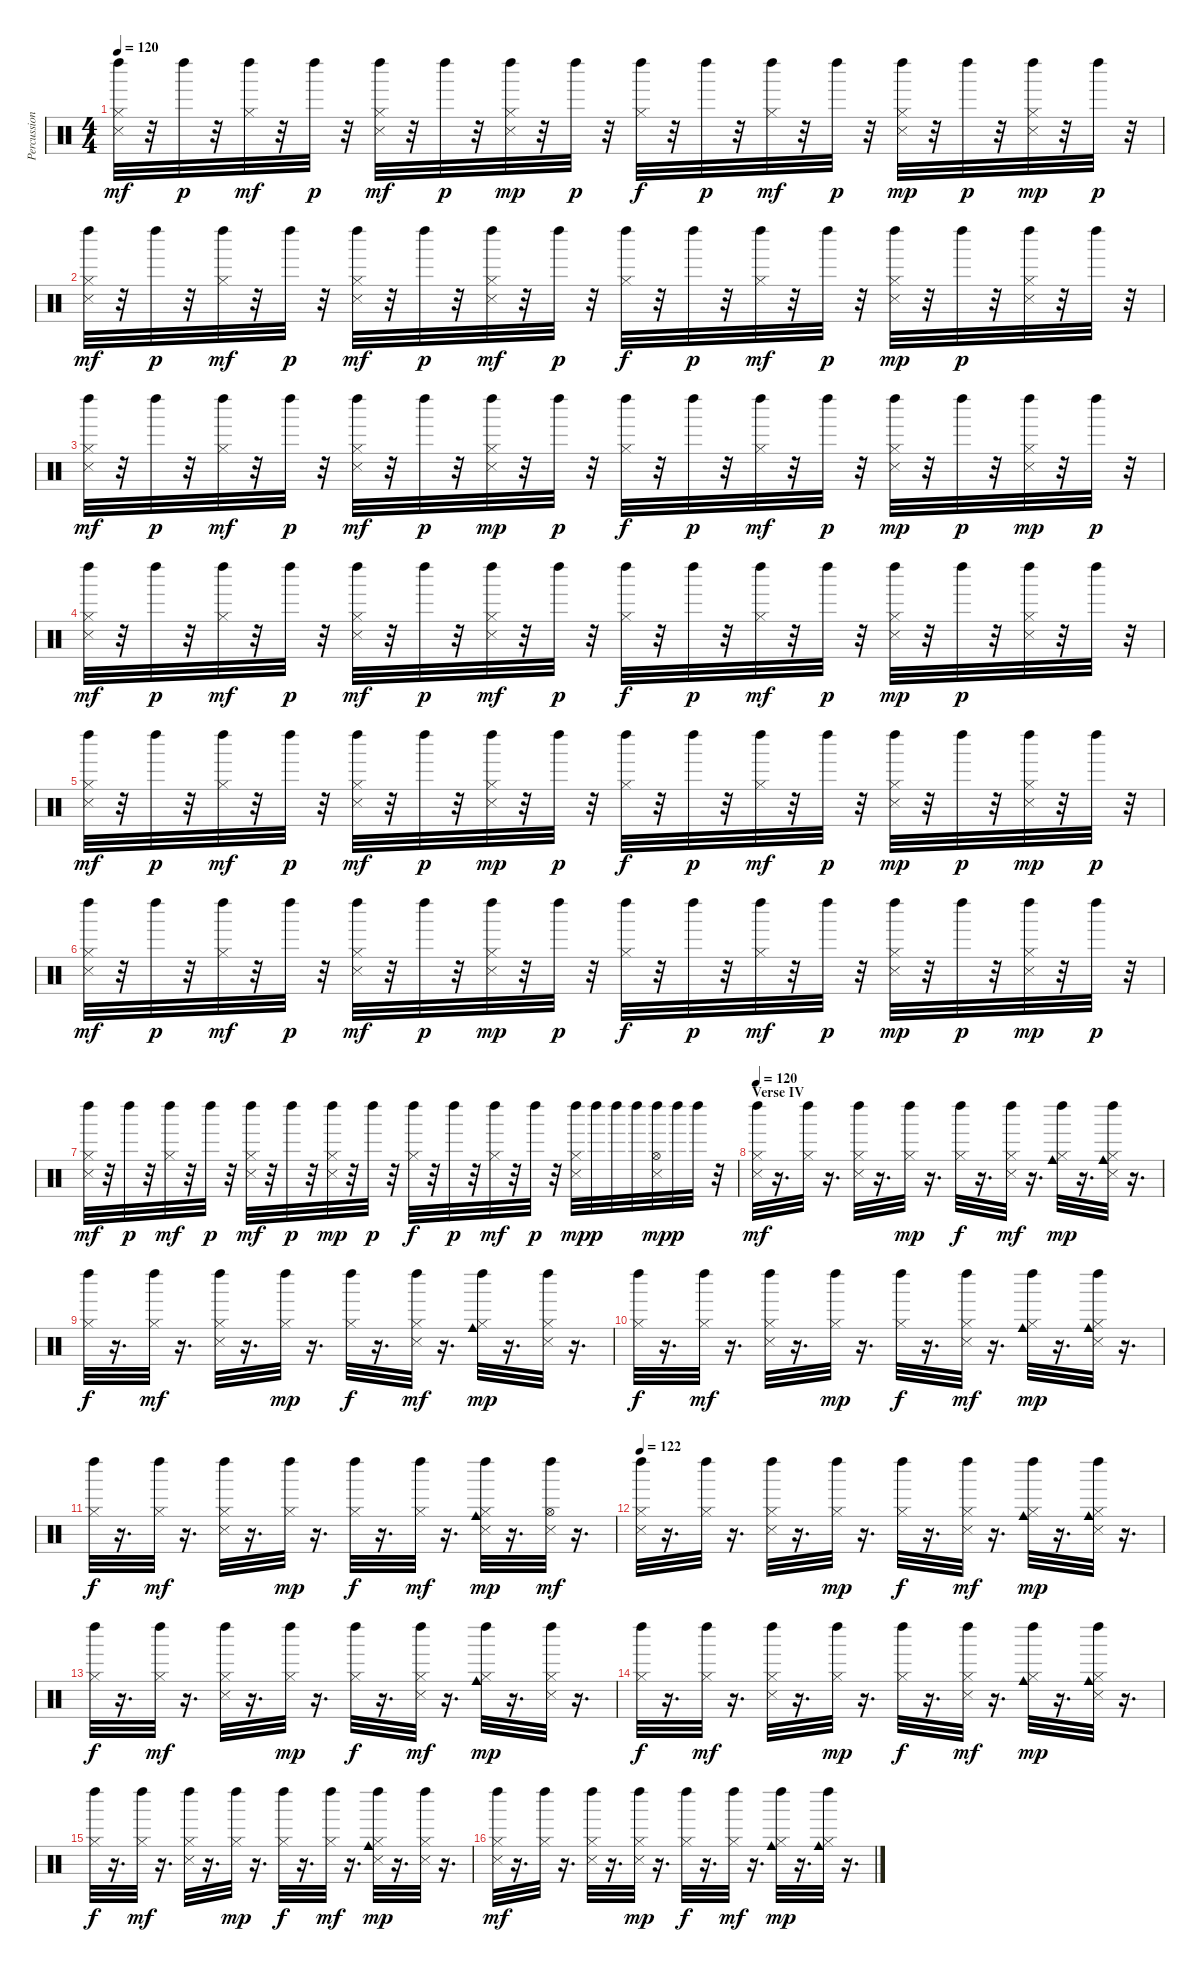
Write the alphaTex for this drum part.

\track ("Percussion" "Percussion") {instrument percussion}
\staff {score}
\articulation defaults
\ts (4 4)
\tempo 120
\clef neutral
\ks c
("Hi-Hat (closed)" "Metronome (hit)" "Left Maraca (hit)").32{dy mf} r.32 "Left Maraca (hit)".32{dy p} r.32 ("Hi-Hat (closed)" "Left Maraca (hit)").32{dy mf} r.32 "Left Maraca (hit)".32{dy p} r.32 ("Hi-Hat (closed)" "Snare (side stick) 3" "Left Maraca (hit)").32{dy mf} r.32 "Left Maraca (hit)".32{dy p} r.32 ("Hi-Hat (closed)" "Metronome (hit)" "Left Maraca (hit)").32{dy mp} r.32 "Left Maraca (hit)".32{dy p} r.32 ("Hi-Hat (closed)" "Left Maraca (hit)").32{dy f} r.32 "Left Maraca (hit)".32{dy p} r.32 ("Hi-Hat (closed)" "Left Maraca (hit)").32{dy mf} r.32 "Left Maraca (hit)".32{dy p} r.32 ("Hi-Hat (closed)" "Snare (side stick) 3" "Left Maraca (hit)").32{dy mp} r.32 "Left Maraca (hit)".32{dy p} r.32 ("Hi-Hat (closed)" "Metronome (hit)" "Left Maraca (hit)").32{dy mp} r.32 "Left Maraca (hit)".32{dy p} r.32 |
("Hi-Hat (closed)" "Left Maraca (hit)" "Metronome (hit)").32{dy mf} r.32 "Left Maraca (hit)".32{dy p} r.32 ("Hi-Hat (closed)" "Left Maraca (hit)").32{dy mf} r.32 "Left Maraca (hit)".32{dy p} r.32 ("Hi-Hat (closed)" "Snare (side stick) 3" "Left Maraca (hit)").32{dy mf} r.32 "Left Maraca (hit)".32{dy p} r.32 ("Hi-Hat (closed)" "Left Maraca (hit)" "Metronome (hit)").32{dy mf} r.32 "Left Maraca (hit)".32{dy p} r.32 ("Hi-Hat (closed)" "Left Maraca (hit)").32{dy f} r.32 "Left Maraca (hit)".32{dy p} r.32 ("Hi-Hat (closed)" "Left Maraca (hit)").32{dy mf} r.32 "Left Maraca (hit)".32{dy p} r.32 ("Hi-Hat (closed)" "Left Maraca (hit)" "Snare (side stick) 3").32{dy mp} r.32 "Left Maraca (hit)".32{dy p} r.32 ("Hi-Hat (closed)" "Left Maraca (hit)" "Metronome (hit)").32 r.32 "Left Maraca (hit)".32 r.32 |
("Hi-Hat (closed)" "Metronome (hit)" "Left Maraca (hit)").32{dy mf} r.32 "Left Maraca (hit)".32{dy p} r.32 ("Hi-Hat (closed)" "Left Maraca (hit)").32{dy mf} r.32 "Left Maraca (hit)".32{dy p} r.32 ("Snare (side stick) 3" "Hi-Hat (closed)" "Left Maraca (hit)").32{dy mf} r.32 "Left Maraca (hit)".32{dy p} r.32 ("Hi-Hat (closed)" "Metronome (hit)" "Left Maraca (hit)").32{dy mp} r.32 "Left Maraca (hit)".32{dy p} r.32 ("Hi-Hat (closed)" "Left Maraca (hit)").32{dy f} r.32 "Left Maraca (hit)".32{dy p} r.32 ("Hi-Hat (closed)" "Left Maraca (hit)").32{dy mf} r.32 "Left Maraca (hit)".32{dy p} r.32 ("Hi-Hat (closed)" "Snare (side stick) 3" "Left Maraca (hit)").32{dy mp} r.32 "Left Maraca (hit)".32{dy p} r.32 ("Hi-Hat (closed)" "Metronome (hit)" "Left Maraca (hit)").32{dy mp} r.32 "Left Maraca (hit)".32{dy p} r.32 |
("Left Maraca (hit)" "Hi-Hat (closed)" "Metronome (hit)").32{dy mf} r.32 "Left Maraca (hit)".32{dy p} r.32 ("Left Maraca (hit)" "Hi-Hat (closed)").32{dy mf} r.32 "Left Maraca (hit)".32{dy p} r.32 ("Left Maraca (hit)" "Hi-Hat (closed)" "Snare (side stick) 3").32{dy mf} r.32 "Left Maraca (hit)".32{dy p} r.32 ("Left Maraca (hit)" "Hi-Hat (closed)" "Metronome (hit)").32{dy mf} r.32 "Left Maraca (hit)".32{dy p} r.32 ("Left Maraca (hit)" "Hi-Hat (closed)").32{dy f} r.32 "Left Maraca (hit)".32{dy p} r.32 ("Left Maraca (hit)" "Hi-Hat (closed)").32{dy mf} r.32 "Left Maraca (hit)".32{dy p} r.32 ("Left Maraca (hit)" "Hi-Hat (closed)" "Snare (side stick) 3").32{dy mp} r.32 "Left Maraca (hit)".32{dy p} r.32 ("Left Maraca (hit)" "Hi-Hat (closed)" "Metronome (hit)").32 r.32 "Left Maraca (hit)".32 r.32 |
("Hi-Hat (closed)" "Metronome (hit)" "Left Maraca (hit)").32{dy mf} r.32 "Left Maraca (hit)".32{dy p} r.32 ("Hi-Hat (closed)" "Left Maraca (hit)").32{dy mf} r.32 "Left Maraca (hit)".32{dy p} r.32 ("Snare (side stick) 3" "Hi-Hat (closed)" "Left Maraca (hit)").32{dy mf} r.32 "Left Maraca (hit)".32{dy p} r.32 ("Hi-Hat (closed)" "Metronome (hit)" "Left Maraca (hit)").32{dy mp} r.32 "Left Maraca (hit)".32{dy p} r.32 ("Hi-Hat (closed)" "Left Maraca (hit)").32{dy f} r.32 "Left Maraca (hit)".32{dy p} r.32 ("Hi-Hat (closed)" "Left Maraca (hit)").32{dy mf} r.32 "Left Maraca (hit)".32{dy p} r.32 ("Hi-Hat (closed)" "Snare (side stick) 3" "Left Maraca (hit)").32{dy mp} r.32 "Left Maraca (hit)".32{dy p} r.32 ("Hi-Hat (closed)" "Metronome (hit)" "Left Maraca (hit)").32{dy mp} r.32 "Left Maraca (hit)".32{dy p} r.32 |
("Metronome (hit)" "Hi-Hat (closed)" "Left Maraca (hit)").32{dy mf} r.32 "Left Maraca (hit)".32{dy p} r.32 ("Hi-Hat (closed)" "Left Maraca (hit)").32{dy mf} r.32 "Left Maraca (hit)".32{dy p} r.32 ("Hi-Hat (closed)" "Snare (side stick) 3" "Left Maraca (hit)").32{dy mf} r.32 "Left Maraca (hit)".32{dy p} r.32 ("Metronome (hit)" "Hi-Hat (closed)" "Left Maraca (hit)").32{dy mp} r.32 "Left Maraca (hit)".32{dy p} r.32 ("Hi-Hat (closed)" "Left Maraca (hit)").32{dy f} r.32 "Left Maraca (hit)".32{dy p} r.32 ("Hi-Hat (closed)" "Left Maraca (hit)").32{dy mf} r.32 "Left Maraca (hit)".32{dy p} r.32 ("Snare (side stick) 3" "Hi-Hat (closed)" "Left Maraca (hit)").32{dy mp} r.32 "Left Maraca (hit)".32{dy p} r.32 ("Metronome (hit)" "Hi-Hat (closed)" "Left Maraca (hit)").32{dy mp} r.32 "Left Maraca (hit)".32{dy p} r.32 |
("Metronome (hit)" "Hi-Hat (closed)" "Left Maraca (hit)").32{dy mf} r.32 "Left Maraca (hit)".32{dy p} r.32 ("Hi-Hat (closed)" "Left Maraca (hit)").32{dy mf} r.32 "Left Maraca (hit)".32{dy p} r.32 ("Snare (side stick) 3" "Hi-Hat (closed)" "Left Maraca (hit)").32{dy mf} r.32 "Left Maraca (hit)".32{dy p} r.32 ("Metronome (hit)" "Hi-Hat (closed)" "Left Maraca (hit)").32{dy mp} r.32 "Left Maraca (hit)".32{dy p} r.32 ("Hi-Hat (closed)" "Left Maraca (hit)").32{dy f} r.32 "Left Maraca (hit)".32{dy p} r.32 ("Hi-Hat (closed)" "Left Maraca (hit)").32{dy mf} r.32 "Left Maraca (hit)".32{dy p} r.32 ("Snare (side stick) 3" "Hi-Hat (closed)" "Left Maraca (hit)").32{dy mp} "Left Maraca (hit)".32{dy p} "Left Maraca (hit)".32 "Left Maraca (hit)".32 ("Metronome (hit)" "Hi-Hat (open)" "Left Maraca (hit)").32{dy mp} "Left Maraca (hit)".32{dy p} "Left Maraca (hit)".32 r.32 |
\section ("" "Verse IV")
\tempo 120
("Left Maraca (hit)" "Metronome (hit)" "Hi-Hat (closed)").32{dy mf} r.16{d} ("Hi-Hat (closed)" "Left Maraca (hit)").32 r.16{d} ("Snare (side stick) 3" "Hi-Hat (closed)" "Left Maraca (hit)").32 r.16{d} ("Left Maraca (hit)" "Hi-Hat (closed)").32{dy mp} r.16{d} ("Left Maraca (hit)" "Hi-Hat (closed)").32{dy f} r.16{d} ("Metronome (hit)" "Left Maraca (hit)" "Hi-Hat (closed)").32{dy mf} r.16{d} ("Cowbell medium (hit)" "Hi-Hat (closed)" "Left Maraca (hit)").32{dy mp} r.16{d} ("Cowbell medium (hit)" "Hi-Hat (closed)" "Metronome (hit)" "Left Maraca (hit)").32 r.16{d} |
("Hi-Hat (closed)" "Left Maraca (hit)").32{dy f} r.16{d} ("Hi-Hat (closed)" "Left Maraca (hit)").32{dy mf} r.16{d} ("Snare (side stick) 3" "Hi-Hat (closed)" "Left Maraca (hit)").32 r.16{d} ("Hi-Hat (closed)" "Left Maraca (hit)").32{dy mp} r.16{d} ("Hi-Hat (closed)" "Left Maraca (hit)").32{dy f} r.16{d} ("Metronome (hit)" "Hi-Hat (closed)" "Left Maraca (hit)").32{dy mf} r.16{d} ("Cowbell medium (hit)" "Hi-Hat (closed)" "Left Maraca (hit)").32{dy mp} r.16{d} ("Metronome (hit)" "Hi-Hat (closed)" "Left Maraca (hit)").32 r.16{d} |
("Hi-Hat (closed)" "Left Maraca (hit)").32{dy f} r.16{d} ("Hi-Hat (closed)" "Left Maraca (hit)").32{dy mf} r.16{d} ("Hi-Hat (closed)" "Left Maraca (hit)" "Snare (side stick) 3").32 r.16{d} ("Hi-Hat (closed)" "Left Maraca (hit)").32{dy mp} r.16{d} ("Hi-Hat (closed)" "Left Maraca (hit)").32{dy f} r.16{d} ("Metronome (hit)" "Hi-Hat (closed)" "Left Maraca (hit)").32{dy mf} r.16{d} ("Hi-Hat (closed)" "Left Maraca (hit)" "Cowbell medium (hit)").32{dy mp} r.16{d} ("Metronome (hit)" "Hi-Hat (closed)" "Left Maraca (hit)" "Cowbell medium (hit)").32 r.16{d} |
("Left Maraca (hit)" "Hi-Hat (closed)").32{dy f} r.16{d} ("Left Maraca (hit)" "Hi-Hat (closed)").32{dy mf} r.16{d} ("Snare (side stick) 3" "Left Maraca (hit)" "Hi-Hat (closed)").32 r.16{d} ("Left Maraca (hit)" "Hi-Hat (closed)").32{dy mp} r.16{d} ("Left Maraca (hit)" "Hi-Hat (closed)").32{dy f} r.16{d} ("Left Maraca (hit)" "Hi-Hat (closed)").32{dy mf} r.16{d} ("Metronome (hit)" "Cowbell medium (hit)" "Left Maraca (hit)" "Hi-Hat (closed)").32{dy mp} r.16{d} ("Metronome (hit)" "Left Maraca (hit)" "Hi-Hat (open)").32{dy mf} r.16{d} |
\tempo 122
("Metronome (hit)" "Hi-Hat (closed)" "Left Maraca (hit)").32 r.16{d} ("Hi-Hat (closed)" "Left Maraca (hit)").32 r.16{d} ("Hi-Hat (closed)" "Left Maraca (hit)" "Snare (side stick) 3").32 r.16{d} ("Hi-Hat (closed)" "Left Maraca (hit)").32{dy mp} r.16{d} ("Hi-Hat (closed)" "Left Maraca (hit)").32{dy f} r.16{d} ("Metronome (hit)" "Hi-Hat (closed)" "Left Maraca (hit)").32{dy mf} r.16{d} ("Hi-Hat (closed)" "Left Maraca (hit)" "Cowbell medium (hit)").32{dy mp} r.16{d} ("Metronome (hit)" "Hi-Hat (closed)" "Cowbell medium (hit)" "Left Maraca (hit)").32 r.16{d} |
("Hi-Hat (closed)" "Left Maraca (hit)").32{dy f} r.16{d} ("Hi-Hat (closed)" "Left Maraca (hit)").32{dy mf} r.16{d} ("Hi-Hat (closed)" "Left Maraca (hit)" "Snare (side stick) 3").32 r.16{d} ("Hi-Hat (closed)" "Left Maraca (hit)").32{dy mp} r.16{d} ("Hi-Hat (closed)" "Left Maraca (hit)").32{dy f} r.16{d} ("Metronome (hit)" "Hi-Hat (closed)" "Left Maraca (hit)").32{dy mf} r.16{d} ("Hi-Hat (closed)" "Left Maraca (hit)" "Cowbell medium (hit)").32{dy mp} r.16{d} ("Metronome (hit)" "Hi-Hat (closed)" "Left Maraca (hit)").32 r.16{d} |
("Hi-Hat (closed)" "Left Maraca (hit)").32{dy f} r.16{d} ("Hi-Hat (closed)" "Left Maraca (hit)").32{dy mf} r.16{d} ("Hi-Hat (closed)" "Left Maraca (hit)" "Snare (side stick) 3").32 r.16{d} ("Hi-Hat (closed)" "Left Maraca (hit)").32{dy mp} r.16{d} ("Hi-Hat (closed)" "Left Maraca (hit)").32{dy f} r.16{d} ("Metronome (hit)" "Hi-Hat (closed)" "Left Maraca (hit)").32{dy mf} r.16{d} ("Hi-Hat (closed)" "Left Maraca (hit)" "Cowbell medium (hit)").32{dy mp} r.16{d} ("Metronome (hit)" "Hi-Hat (closed)" "Left Maraca (hit)" "Cowbell medium (hit)").32 r.16{d} |
("Left Maraca (hit)" "Hi-Hat (closed)").32{dy f} r.16{d} ("Left Maraca (hit)" "Hi-Hat (closed)").32{dy mf} r.16{d} ("Snare (side stick) 3" "Left Maraca (hit)" "Hi-Hat (closed)").32 r.16{d} ("Left Maraca (hit)" "Hi-Hat (closed)").32{dy mp} r.16{d} ("Left Maraca (hit)" "Hi-Hat (closed)").32{dy f} r.16{d} ("Left Maraca (hit)" "Hi-Hat (closed)").32{dy mf} r.16{d} ("Metronome (hit)" "Cowbell medium (hit)" "Left Maraca (hit)" "Hi-Hat (closed)").32{dy mp} r.16{d} ("Metronome (hit)" "Left Maraca (hit)" "Hi-Hat (closed)").32 r.16{d} |
("Metronome (hit)" "Hi-Hat (closed)" "Left Maraca (hit)").32{dy mf} r.16{d} ("Hi-Hat (closed)" "Left Maraca (hit)").32 r.16{d} ("Hi-Hat (closed)" "Snare (side stick) 3" "Left Maraca (hit)").32 r.16{d} ("Metronome (hit)" "Hi-Hat (closed)" "Left Maraca (hit)").32{dy mp} r.16{d} ("Hi-Hat (closed)" "Left Maraca (hit)").32{dy f} r.16{d} ("Hi-Hat (closed)" "Left Maraca (hit)").32{dy mf} r.16{d} ("Hi-Hat (closed)" "Cowbell medium (hit)" "Left Maraca (hit)").32{dy mp} r.16{d} ("Hi-Hat (closed)" "Cowbell medium (hit)" "Left Maraca (hit)").32 r.16{d}
